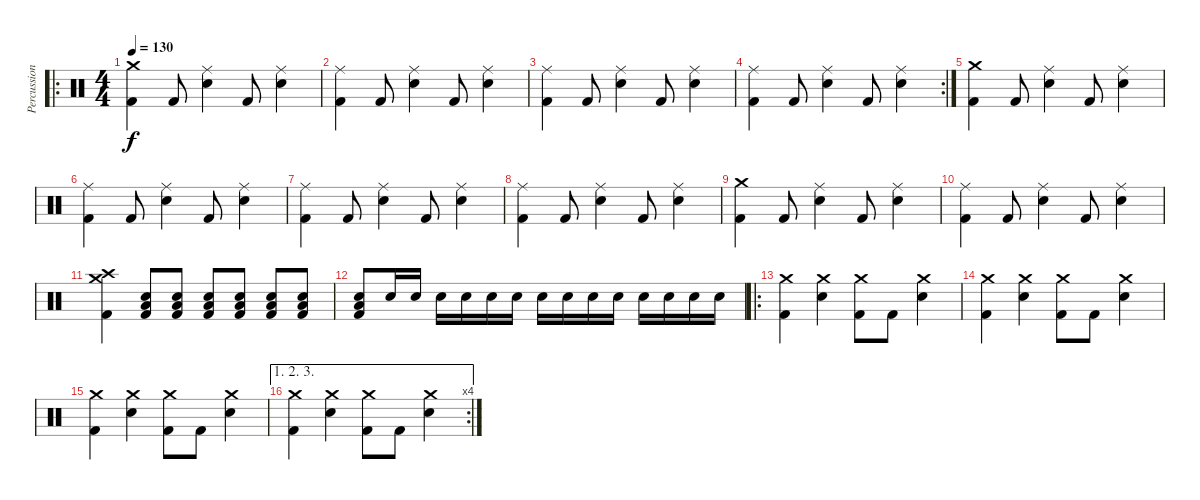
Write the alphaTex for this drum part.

\track ("Percussion" "Percussion") {instrument percussion}
\staff {score}
\articulation defaults
\ro
\ts (4 4)
\tempo 130
\clef neutral
\ks c
("Crash medium (hit)" "Kick (hit) 2").4{dy f} "Kick (hit) 2".8 ("Ride (middle)" "Snare (hit) 2").4 "Kick (hit) 2".8 ("Ride (middle)" "Snare (hit) 2").4 |
("Ride (middle)" "Kick (hit) 2").4 "Kick (hit) 2".8 ("Ride (middle)" "Snare (hit) 2").4 "Kick (hit) 2".8 ("Ride (middle)" "Snare (hit) 2").4 |
("Ride (middle)" "Kick (hit) 2").4 "Kick (hit) 2".8 ("Ride (middle)" "Snare (hit) 2").4 "Kick (hit) 2".8 ("Ride (middle)" "Snare (hit) 2").4 |
\rc 2
("Ride (middle)" "Kick (hit) 2").4 "Kick (hit) 2".8 ("Ride (middle)" "Snare (hit) 2").4 "Kick (hit) 2".8 ("Ride (middle)" "Snare (hit) 2").4 |
("Crash medium (hit)" "Kick (hit) 2").4 "Kick (hit) 2".8 ("Ride (middle)" "Snare (hit) 2").4 "Kick (hit) 2".8 ("Ride (middle)" "Snare (hit) 2").4 |
("Ride (middle)" "Kick (hit) 2").4 "Kick (hit) 2".8 ("Ride (middle)" "Snare (hit) 2").4 "Kick (hit) 2".8 ("Ride (middle)" "Snare (hit) 2").4 |
("Ride (middle)" "Kick (hit) 2").4 "Kick (hit) 2".8 ("Ride (middle)" "Snare (hit) 2").4 "Kick (hit) 2".8 ("Ride (middle)" "Snare (hit) 2").4 |
("Ride (middle)" "Kick (hit) 2").4 "Kick (hit) 2".8 ("Ride (middle)" "Snare (hit) 2").4 "Kick (hit) 2".8 ("Ride (middle)" "Snare (hit) 2").4 |
("Crash medium (hit)" "Kick (hit) 2").4 "Kick (hit) 2".8 ("Ride (middle)" "Snare (hit) 2").4 "Kick (hit) 2".8 ("Ride (middle)" "Snare (hit) 2").4 |
("Ride (middle)" "Kick (hit) 2").4 "Kick (hit) 2".8 ("Ride (middle)" "Snare (hit) 2").4 "Kick (hit) 2".8 ("Ride (middle)" "Snare (hit) 2").4 |
("Crash high (hit)" "Crash medium (hit)" "Kick (hit) 2").4 ("Snare (hit) 2" "Low Floor Tom (hit)" "Kick (hit) 2").8 ("Snare (hit) 2" "Low Floor Tom (hit)" "Kick (hit) 2").8 ("Snare (hit) 2" "Low Floor Tom (hit)" "Kick (hit) 2").8 ("Snare (hit) 2" "Low Floor Tom (hit)" "Kick (hit) 2").8 ("Snare (hit) 2" "Low Floor Tom (hit)" "Kick (hit) 2").8 ("Snare (hit) 2" "Low Floor Tom (hit)" "Kick (hit) 2").8 |
("Snare (hit) 2" "Low Floor Tom (hit)" "Kick (hit) 2").8 "Snare (hit) 2".16 "Snare (hit) 2".16 "Snare (hit) 2".16 "Snare (hit) 2".16 "Snare (hit) 2".16 "Snare (hit) 2".16 "Snare (hit) 2".16 "Snare (hit) 2".16 "Snare (hit) 2".16 "Snare (hit) 2".16 "Snare (hit) 2".16 "Snare (hit) 2".16 "Snare (hit) 2".16 "Snare (hit) 2".16 |
\ro
("Crash medium (hit)" "Kick (hit) 2").4 ("Crash medium (hit)" "Snare (hit) 2").4 ("Crash medium (hit)" "Kick (hit) 2").8 "Kick (hit) 2".8 ("Crash medium (hit)" "Snare (hit) 2").4 |
("Crash medium (hit)" "Kick (hit) 2").4 ("Crash medium (hit)" "Snare (hit) 2").4 ("Crash medium (hit)" "Kick (hit) 2").8 "Kick (hit) 2".8 ("Crash medium (hit)" "Snare (hit) 2").4 |
("Crash medium (hit)" "Kick (hit) 2").4 ("Crash medium (hit)" "Snare (hit) 2").4 ("Crash medium (hit)" "Kick (hit) 2").8 "Kick (hit) 2".8 ("Crash medium (hit)" "Snare (hit) 2").4 |
\ae (1 2 3)
\rc 4
("Crash medium (hit)" "Kick (hit) 2").4 ("Crash medium (hit)" "Snare (hit) 2").4 ("Crash medium (hit)" "Kick (hit) 2").8 "Kick (hit) 2".8 ("Crash medium (hit)" "Snare (hit) 2").4
